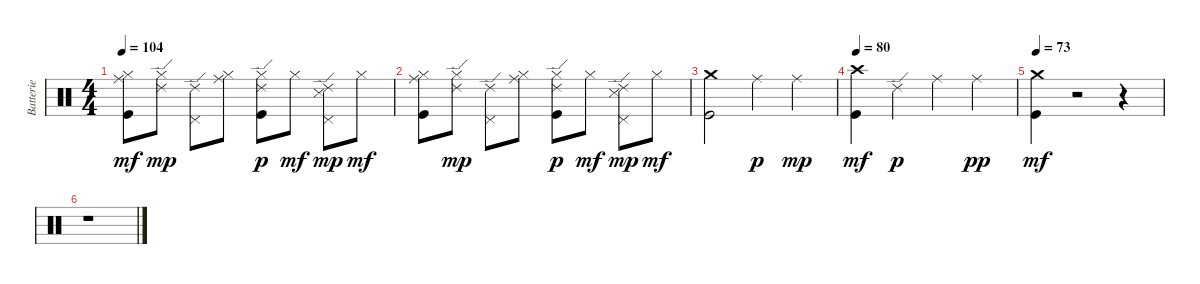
\track ("Batterie" "Batterie") {instrument percussion}
\staff {score}
\articulation defaults
\ts (4 4)
\tempo 104
\clef neutral
\ks c
("Hi-Hat (closed)" "Ride (middle)" "Kick (hit)").8{dy mf} ("Hi-Hat (closed)" "Ride (edge) 2").8{dy mp} ("Pedal Hi-Hat (hit)" "Ride (edge) 2").8 ("Hi-Hat (closed)" "Ride (middle)").8 ("Hi-Hat (closed)" "Kick (hit)" "Ride (edge) 2").8{dy p} "Hi-Hat (closed)".8{dy mf} ("Snare (side stick) 3" "Pedal Hi-Hat (hit)" "Ride (edge) 2").8{dy mp} "Hi-Hat (closed)".8{dy mf} |
("Hi-Hat (closed)" "Ride (middle)" "Kick (hit)").8 ("Hi-Hat (closed)" "Ride (edge) 2").8{dy mp} ("Pedal Hi-Hat (hit)" "Ride (edge) 2").8 ("Hi-Hat (closed)" "Ride (middle)").8 ("Hi-Hat (closed)" "Kick (hit)" "Ride (edge) 2").8{dy p} "Hi-Hat (closed)".8{dy mf} ("Snare (side stick) 3" "Pedal Hi-Hat (hit)" "Ride (edge) 2").8{dy mp} "Hi-Hat (closed)".8{dy mf} |
("Crash medium (hit)" "Kick (hit)").2 "Ride (middle)".4{dy p} "Ride (middle)".4{dy mp} |
\tempo 80
("Crash high (hit)" "Kick (hit)").4{dy mf} "Ride (edge) 2".4{dy p} "Ride (middle)".4 "Ride (middle)".4{dy pp} |
\tempo 73
("Crash medium (hit)" "Kick (hit)").4{dy mf} r.2 r.4 |
r.1
